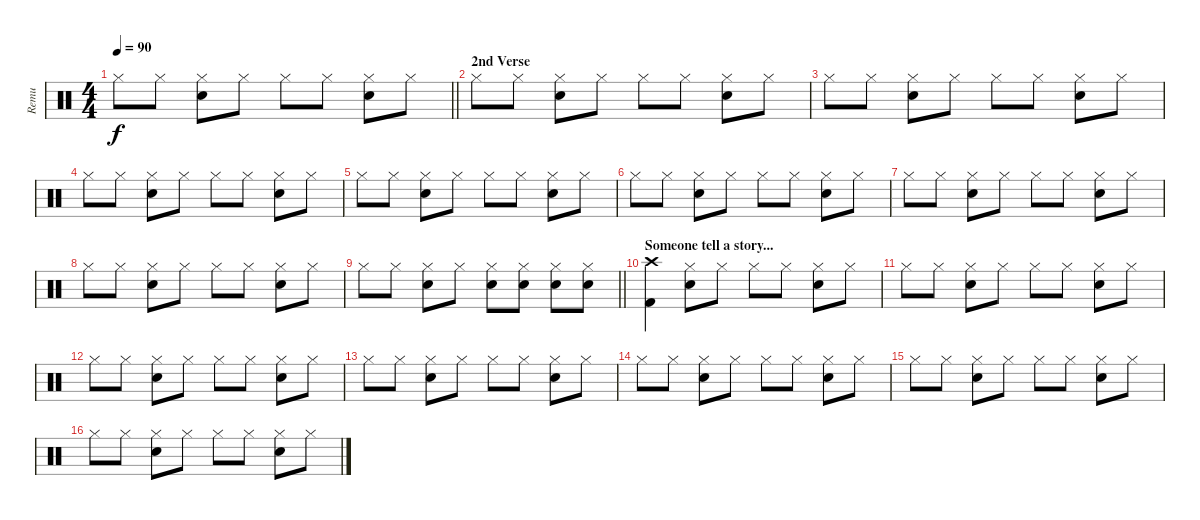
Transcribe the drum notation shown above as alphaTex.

\track ("Remu" "Remu") {instrument percussion}
\staff {score}
\articulation defaults
\ts (4 4)
\tempo 90
\clef neutral
\barLineRight lightlight
\ks c "Hi-Hat (closed)".8{dy f} "Hi-Hat (closed)".8
("Hi-Hat (closed)" "Snare (hit) 2").8 "Hi-Hat (closed)".8 "Hi-Hat (closed)".8 "Hi-Hat (closed)".8 ("Hi-Hat (closed)" "Snare (hit) 2").8 "Hi-Hat (closed)".8 |
\section ("" "2nd Verse")
"Hi-Hat (closed)".8 "Hi-Hat (closed)".8 ("Hi-Hat (closed)" "Snare (hit) 2").8 "Hi-Hat (closed)".8 "Hi-Hat (closed)".8 "Hi-Hat (closed)".8 ("Hi-Hat (closed)" "Snare (hit) 2").8 "Hi-Hat (closed)".8 |
"Hi-Hat (closed)".8 "Hi-Hat (closed)".8 ("Hi-Hat (closed)" "Snare (hit) 2").8 "Hi-Hat (closed)".8 "Hi-Hat (closed)".8 "Hi-Hat (closed)".8 ("Hi-Hat (closed)" "Snare (hit) 2").8 "Hi-Hat (closed)".8 |
"Hi-Hat (closed)".8 "Hi-Hat (closed)".8 ("Hi-Hat (closed)" "Snare (hit) 2").8 "Hi-Hat (closed)".8 "Hi-Hat (closed)".8 "Hi-Hat (closed)".8 ("Hi-Hat (closed)" "Snare (hit) 2").8 "Hi-Hat (closed)".8 |
"Hi-Hat (closed)".8 "Hi-Hat (closed)".8 ("Hi-Hat (closed)" "Snare (hit) 2").8 "Hi-Hat (closed)".8 "Hi-Hat (closed)".8 "Hi-Hat (closed)".8 ("Hi-Hat (closed)" "Snare (hit) 2").8 "Hi-Hat (closed)".8 |
"Hi-Hat (closed)".8 "Hi-Hat (closed)".8 ("Hi-Hat (closed)" "Snare (hit) 2").8 "Hi-Hat (closed)".8 "Hi-Hat (closed)".8 "Hi-Hat (closed)".8 ("Hi-Hat (closed)" "Snare (hit) 2").8 "Hi-Hat (closed)".8 |
"Hi-Hat (closed)".8 "Hi-Hat (closed)".8 ("Hi-Hat (closed)" "Snare (hit) 2").8 "Hi-Hat (closed)".8 "Hi-Hat (closed)".8 "Hi-Hat (closed)".8 ("Hi-Hat (closed)" "Snare (hit) 2").8 "Hi-Hat (closed)".8 |
"Hi-Hat (closed)".8 "Hi-Hat (closed)".8 ("Hi-Hat (closed)" "Snare (hit) 2").8 "Hi-Hat (closed)".8 "Hi-Hat (closed)".8 "Hi-Hat (closed)".8 ("Hi-Hat (closed)" "Snare (hit) 2").8 "Hi-Hat (closed)".8 |
\barLineRight lightlight "Hi-Hat (closed)".8 "Hi-Hat (closed)".8
("Hi-Hat (closed)" "Snare (hit) 2").8 "Hi-Hat (closed)".8 ("Hi-Hat (closed)" "Snare (hit) 2").8 ("Hi-Hat (closed)" "Snare (hit) 2").8 ("Hi-Hat (closed)" "Snare (hit) 2").8 ("Hi-Hat (closed)" "Snare (hit) 2").8 |
\section ("" "Someone tell a story...")
("Crash high (hit)" "Kick (hit) 2").4 ("Hi-Hat (closed)" "Snare (hit) 2").8 "Hi-Hat (closed)".8 "Hi-Hat (closed)".8 "Hi-Hat (closed)".8 ("Hi-Hat (closed)" "Snare (hit) 2").8 "Hi-Hat (closed)".8 |
"Hi-Hat (closed)".8 "Hi-Hat (closed)".8 ("Hi-Hat (closed)" "Snare (hit) 2").8 "Hi-Hat (closed)".8 "Hi-Hat (closed)".8 "Hi-Hat (closed)".8 ("Hi-Hat (closed)" "Snare (hit) 2").8 "Hi-Hat (closed)".8 |
"Hi-Hat (closed)".8 "Hi-Hat (closed)".8 ("Hi-Hat (closed)" "Snare (hit) 2").8 "Hi-Hat (closed)".8 "Hi-Hat (closed)".8 "Hi-Hat (closed)".8 ("Hi-Hat (closed)" "Snare (hit) 2").8 "Hi-Hat (closed)".8 |
"Hi-Hat (closed)".8 "Hi-Hat (closed)".8 ("Hi-Hat (closed)" "Snare (hit) 2").8 "Hi-Hat (closed)".8 "Hi-Hat (closed)".8 "Hi-Hat (closed)".8 ("Hi-Hat (closed)" "Snare (hit) 2").8 "Hi-Hat (closed)".8 |
"Hi-Hat (closed)".8 "Hi-Hat (closed)".8 ("Hi-Hat (closed)" "Snare (hit) 2").8 "Hi-Hat (closed)".8 "Hi-Hat (closed)".8 "Hi-Hat (closed)".8 ("Hi-Hat (closed)" "Snare (hit) 2").8 "Hi-Hat (closed)".8 |
"Hi-Hat (closed)".8 "Hi-Hat (closed)".8 ("Hi-Hat (closed)" "Snare (hit) 2").8 "Hi-Hat (closed)".8 "Hi-Hat (closed)".8 "Hi-Hat (closed)".8 ("Hi-Hat (closed)" "Snare (hit) 2").8 "Hi-Hat (closed)".8 |
"Hi-Hat (closed)".8 "Hi-Hat (closed)".8 ("Hi-Hat (closed)" "Snare (hit) 2").8 "Hi-Hat (closed)".8 "Hi-Hat (closed)".8 "Hi-Hat (closed)".8 ("Hi-Hat (closed)" "Snare (hit) 2").8 "Hi-Hat (closed)".8
